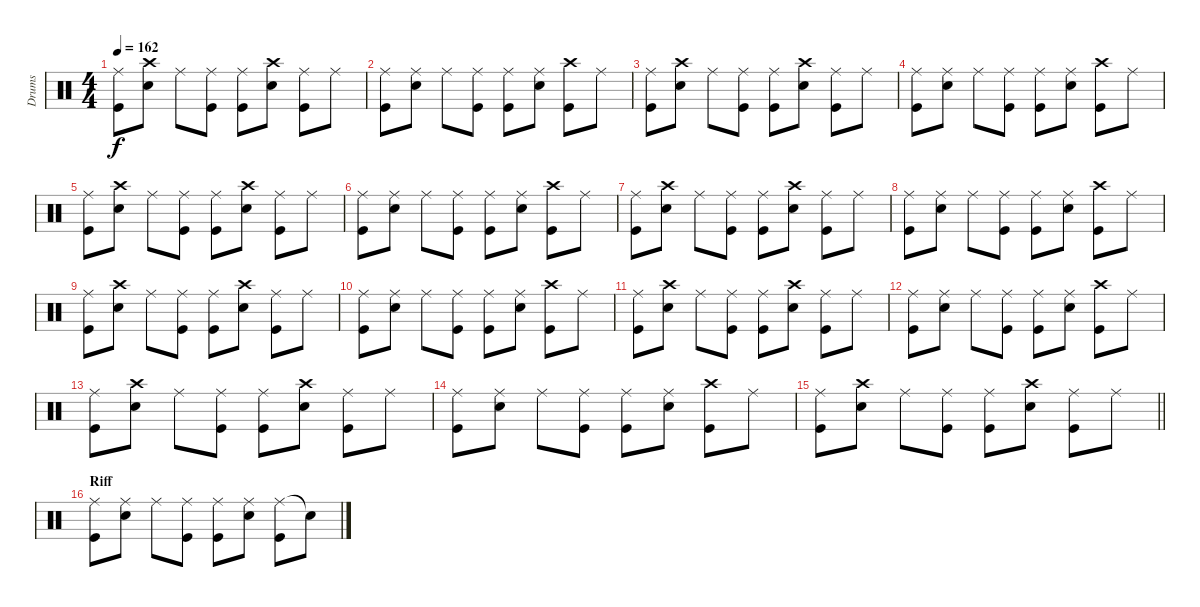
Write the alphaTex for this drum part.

\track ("Drums" "Drums") {instrument percussion}
\staff {score}
\articulation defaults
\ts (4 4)
\tempo 162
\clef neutral
\ks c
("Ride (middle)" "Kick (hit)").8{dy f} ("Crash high (hit)" "Snare (hit) 2").8 "Ride (middle)".8 ("Ride (middle)" "Kick (hit)").8 ("Ride (middle)" "Kick (hit)").8 ("Crash high (hit)" "Snare (hit) 2").8 ("Ride (middle)" "Kick (hit)").8 "Ride (middle)".8 |
("Ride (middle)" "Kick (hit)").8 ("Ride (middle)" "Snare (hit) 2").8 "Ride (middle)".8 ("Ride (middle)" "Kick (hit)").8 ("Ride (middle)" "Kick (hit)").8 ("Ride (middle)" "Snare (hit) 2").8 ("Crash high (hit)" "Kick (hit)").8 "Ride (middle)".8 |
("Ride (middle)" "Kick (hit)").8 ("Crash high (hit)" "Snare (hit) 2").8 "Ride (middle)".8 ("Ride (middle)" "Kick (hit)").8 ("Ride (middle)" "Kick (hit)").8 ("Crash high (hit)" "Snare (hit) 2").8 ("Ride (middle)" "Kick (hit)").8 "Ride (middle)".8 |
("Ride (middle)" "Kick (hit)").8 ("Ride (middle)" "Snare (hit) 2").8 "Ride (middle)".8 ("Ride (middle)" "Kick (hit)").8 ("Ride (middle)" "Kick (hit)").8 ("Ride (middle)" "Snare (hit) 2").8 ("Crash high (hit)" "Kick (hit)").8 "Ride (middle)".8 |
("Ride (middle)" "Kick (hit)").8 ("Crash high (hit)" "Snare (hit) 2").8 "Ride (middle)".8 ("Ride (middle)" "Kick (hit)").8 ("Ride (middle)" "Kick (hit)").8 ("Crash high (hit)" "Snare (hit) 2").8 ("Ride (middle)" "Kick (hit)").8 "Ride (middle)".8 |
("Ride (middle)" "Kick (hit)").8 ("Ride (middle)" "Snare (hit) 2").8 "Ride (middle)".8 ("Ride (middle)" "Kick (hit)").8 ("Ride (middle)" "Kick (hit)").8 ("Ride (middle)" "Snare (hit) 2").8 ("Crash high (hit)" "Kick (hit)").8 "Ride (middle)".8 |
("Ride (middle)" "Kick (hit)").8 ("Crash high (hit)" "Snare (hit) 2").8 "Ride (middle)".8 ("Ride (middle)" "Kick (hit)").8 ("Ride (middle)" "Kick (hit)").8 ("Crash high (hit)" "Snare (hit) 2").8 ("Ride (middle)" "Kick (hit)").8 "Ride (middle)".8 |
("Ride (middle)" "Kick (hit)").8 ("Ride (middle)" "Snare (hit) 2").8 "Ride (middle)".8 ("Ride (middle)" "Kick (hit)").8 ("Ride (middle)" "Kick (hit)").8 ("Ride (middle)" "Snare (hit) 2").8 ("Crash high (hit)" "Kick (hit)").8 "Ride (middle)".8 |
("Ride (middle)" "Kick (hit)").8 ("Crash high (hit)" "Snare (hit) 2").8 "Ride (middle)".8 ("Ride (middle)" "Kick (hit)").8 ("Ride (middle)" "Kick (hit)").8 ("Crash high (hit)" "Snare (hit) 2").8 ("Ride (middle)" "Kick (hit)").8 "Ride (middle)".8 |
("Ride (middle)" "Kick (hit)").8 ("Ride (middle)" "Snare (hit) 2").8 "Ride (middle)".8 ("Ride (middle)" "Kick (hit)").8 ("Ride (middle)" "Kick (hit)").8 ("Ride (middle)" "Snare (hit) 2").8 ("Crash high (hit)" "Kick (hit)").8 "Ride (middle)".8 |
("Ride (middle)" "Kick (hit)").8 ("Crash high (hit)" "Snare (hit) 2").8 "Ride (middle)".8 ("Ride (middle)" "Kick (hit)").8 ("Ride (middle)" "Kick (hit)").8 ("Crash high (hit)" "Snare (hit) 2").8 ("Ride (middle)" "Kick (hit)").8 "Ride (middle)".8 |
("Ride (middle)" "Kick (hit)").8 ("Ride (middle)" "Snare (hit) 2").8 "Ride (middle)".8 ("Ride (middle)" "Kick (hit)").8 ("Ride (middle)" "Kick (hit)").8 ("Ride (middle)" "Snare (hit) 2").8 ("Crash high (hit)" "Kick (hit)").8 "Ride (middle)".8 |
("Ride (middle)" "Kick (hit)").8 ("Crash high (hit)" "Snare (hit) 2").8 "Ride (middle)".8 ("Ride (middle)" "Kick (hit)").8 ("Ride (middle)" "Kick (hit)").8 ("Crash high (hit)" "Snare (hit) 2").8 ("Ride (middle)" "Kick (hit)").8 "Ride (middle)".8 |
("Ride (middle)" "Kick (hit)").8 ("Ride (middle)" "Snare (hit) 2").8 "Ride (middle)".8 ("Ride (middle)" "Kick (hit)").8 ("Ride (middle)" "Kick (hit)").8 ("Ride (middle)" "Snare (hit) 2").8 ("Crash high (hit)" "Kick (hit)").8 "Ride (middle)".8 |
\barLineRight lightlight
("Ride (middle)" "Kick (hit)").8 ("Crash high (hit)" "Snare (hit) 2").8 "Ride (middle)".8 ("Ride (middle)" "Kick (hit)").8 ("Ride (middle)" "Kick (hit)").8 ("Crash high (hit)" "Snare (hit) 2").8 ("Ride (middle)" "Kick (hit)").8 "Ride (middle)".8 |
\section ("" "Riff")
("Ride (middle)" "Kick (hit)").8 ("Ride (middle)" "Snare (hit) 2").8 "Ride (middle)".8 ("Ride (middle)" "Kick (hit)").8 ("Ride (middle)" "Kick (hit)").8 ("Ride (middle)" "Snare (hit) 2").8 ("Ride (middle)" "Kick (hit)").8 "Snare (hit)"{t}.8
